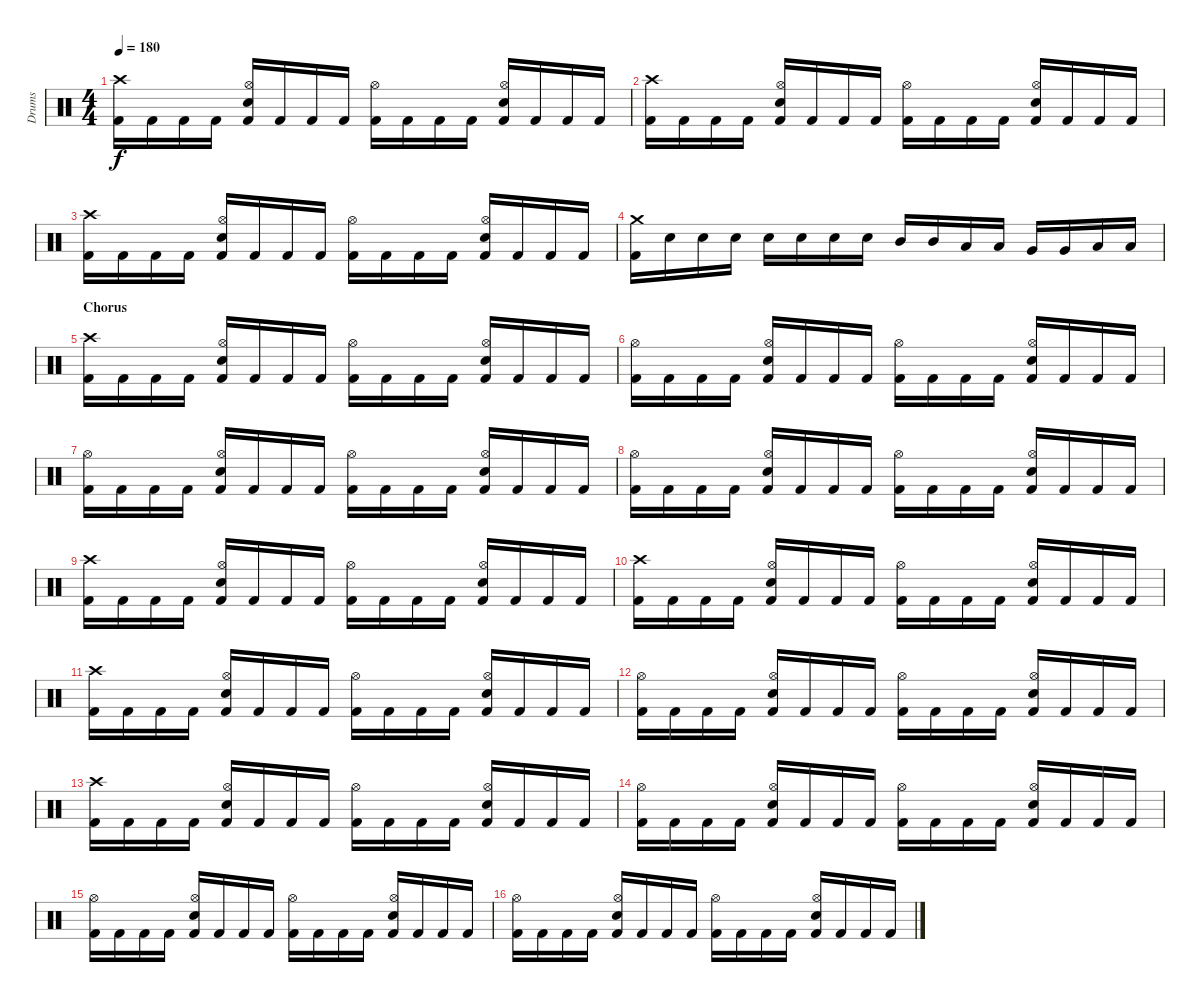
\track ("Drums" "Drums") {instrument percussion}
\staff {score}
\articulation defaults
\ts (4 4)
\tempo 180
\clef neutral
\ks c
("Crash high (hit)" "Kick (hit) 2").16{dy f} "Kick (hit) 2".16 "Kick (hit) 2".16 "Kick (hit) 2".16 ("Hi-Hat (open)" "Electric Snare (hit)" "Kick (hit) 2").16 "Kick (hit) 2".16 "Kick (hit) 2".16 "Kick (hit) 2".16 ("Hi-Hat (open)" "Kick (hit) 2").16 "Kick (hit) 2".16 "Kick (hit) 2".16 "Kick (hit) 2".16 ("Hi-Hat (open)" "Electric Snare (hit)" "Kick (hit) 2").16 "Kick (hit) 2".16 "Kick (hit) 2".16 "Kick (hit) 2".16 |
("Crash high (hit)" "Kick (hit) 2").16 "Kick (hit) 2".16 "Kick (hit) 2".16 "Kick (hit) 2".16 ("Hi-Hat (open)" "Electric Snare (hit)" "Kick (hit) 2").16 "Kick (hit) 2".16 "Kick (hit) 2".16 "Kick (hit) 2".16 ("Hi-Hat (open)" "Kick (hit) 2").16 "Kick (hit) 2".16 "Kick (hit) 2".16 "Kick (hit) 2".16 ("Hi-Hat (open)" "Electric Snare (hit)" "Kick (hit) 2").16 "Kick (hit) 2".16 "Kick (hit) 2".16 "Kick (hit) 2".16 |
("Crash high (hit)" "Kick (hit) 2").16 "Kick (hit) 2".16 "Kick (hit) 2".16 "Kick (hit) 2".16 ("Hi-Hat (open)" "Electric Snare (hit)" "Kick (hit) 2").16 "Kick (hit) 2".16 "Kick (hit) 2".16 "Kick (hit) 2".16 ("Hi-Hat (open)" "Kick (hit) 2").16 "Kick (hit) 2".16 "Kick (hit) 2".16 "Kick (hit) 2".16 ("Hi-Hat (open)" "Electric Snare (hit)" "Kick (hit) 2").16 "Kick (hit) 2".16 "Kick (hit) 2".16 "Kick (hit) 2".16 |
("Crash medium (hit)" "Kick (hit) 2").16 "Electric Snare (hit)".16 "Electric Snare (hit)".16 "Electric Snare (hit)".16 "Electric Snare (hit)".16 "Electric Snare (hit)".16 "Electric Snare (hit)".16 "Electric Snare (hit)".16 "Mid Tom (hit)".16 "Mid Tom (hit)".16 "Low Tom (hit)".16 "Low Tom (hit)".16 "Very Low Tom (hit)".16 "Very Low Tom (hit)".16 "Low Floor Tom (hit)".16 "Low Floor Tom (hit)".16 |
\section ("" "Chorus")
("Crash high (hit)" "Kick (hit) 2").16 "Kick (hit) 2".16 "Kick (hit) 2".16 "Kick (hit) 2".16 ("Hi-Hat (open)" "Electric Snare (hit)" "Kick (hit) 2").16 "Kick (hit) 2".16 "Kick (hit) 2".16 "Kick (hit) 2".16 ("Hi-Hat (open)" "Kick (hit) 2").16 "Kick (hit) 2".16 "Kick (hit) 2".16 "Kick (hit) 2".16 ("Hi-Hat (open)" "Electric Snare (hit)" "Kick (hit) 2").16 "Kick (hit) 2".16 "Kick (hit) 2".16 "Kick (hit) 2".16 |
("Hi-Hat (open)" "Kick (hit) 2").16 "Kick (hit) 2".16 "Kick (hit) 2".16 "Kick (hit) 2".16 ("Hi-Hat (open)" "Electric Snare (hit)" "Kick (hit) 2").16 "Kick (hit) 2".16 "Kick (hit) 2".16 "Kick (hit) 2".16 ("Hi-Hat (open)" "Kick (hit) 2").16 "Kick (hit) 2".16 "Kick (hit) 2".16 "Kick (hit) 2".16 ("Hi-Hat (open)" "Electric Snare (hit)" "Kick (hit) 2").16 "Kick (hit) 2".16 "Kick (hit) 2".16 "Kick (hit) 2".16 |
("Hi-Hat (open)" "Kick (hit) 2").16 "Kick (hit) 2".16 "Kick (hit) 2".16 "Kick (hit) 2".16 ("Hi-Hat (open)" "Electric Snare (hit)" "Kick (hit) 2").16 "Kick (hit) 2".16 "Kick (hit) 2".16 "Kick (hit) 2".16 ("Hi-Hat (open)" "Kick (hit) 2").16 "Kick (hit) 2".16 "Kick (hit) 2".16 "Kick (hit) 2".16 ("Hi-Hat (open)" "Electric Snare (hit)" "Kick (hit) 2").16 "Kick (hit) 2".16 "Kick (hit) 2".16 "Kick (hit) 2".16 |
("Hi-Hat (open)" "Kick (hit) 2").16 "Kick (hit) 2".16 "Kick (hit) 2".16 "Kick (hit) 2".16 ("Hi-Hat (open)" "Electric Snare (hit)" "Kick (hit) 2").16 "Kick (hit) 2".16 "Kick (hit) 2".16 "Kick (hit) 2".16 ("Hi-Hat (open)" "Kick (hit) 2").16 "Kick (hit) 2".16 "Kick (hit) 2".16 "Kick (hit) 2".16 ("Hi-Hat (open)" "Electric Snare (hit)" "Kick (hit) 2").16 "Kick (hit) 2".16 "Kick (hit) 2".16 "Kick (hit) 2".16 |
("Crash high (hit)" "Kick (hit) 2").16 "Kick (hit) 2".16 "Kick (hit) 2".16 "Kick (hit) 2".16 ("Hi-Hat (open)" "Electric Snare (hit)" "Kick (hit) 2").16 "Kick (hit) 2".16 "Kick (hit) 2".16 "Kick (hit) 2".16 ("Hi-Hat (open)" "Kick (hit) 2").16 "Kick (hit) 2".16 "Kick (hit) 2".16 "Kick (hit) 2".16 ("Hi-Hat (open)" "Electric Snare (hit)" "Kick (hit) 2").16 "Kick (hit) 2".16 "Kick (hit) 2".16 "Kick (hit) 2".16 |
("Crash high (hit)" "Kick (hit) 2").16 "Kick (hit) 2".16 "Kick (hit) 2".16 "Kick (hit) 2".16 ("Hi-Hat (open)" "Electric Snare (hit)" "Kick (hit) 2").16 "Kick (hit) 2".16 "Kick (hit) 2".16 "Kick (hit) 2".16 ("Hi-Hat (open)" "Kick (hit) 2").16 "Kick (hit) 2".16 "Kick (hit) 2".16 "Kick (hit) 2".16 ("Hi-Hat (open)" "Electric Snare (hit)" "Kick (hit) 2").16 "Kick (hit) 2".16 "Kick (hit) 2".16 "Kick (hit) 2".16 |
("Crash high (hit)" "Kick (hit) 2").16 "Kick (hit) 2".16 "Kick (hit) 2".16 "Kick (hit) 2".16 ("Hi-Hat (open)" "Electric Snare (hit)" "Kick (hit) 2").16 "Kick (hit) 2".16 "Kick (hit) 2".16 "Kick (hit) 2".16 ("Hi-Hat (open)" "Kick (hit) 2").16 "Kick (hit) 2".16 "Kick (hit) 2".16 "Kick (hit) 2".16 ("Hi-Hat (open)" "Electric Snare (hit)" "Kick (hit) 2").16 "Kick (hit) 2".16 "Kick (hit) 2".16 "Kick (hit) 2".16 |
("Hi-Hat (open)" "Kick (hit) 2").16 "Kick (hit) 2".16 "Kick (hit) 2".16 "Kick (hit) 2".16 ("Hi-Hat (open)" "Electric Snare (hit)" "Kick (hit) 2").16 "Kick (hit) 2".16 "Kick (hit) 2".16 "Kick (hit) 2".16 ("Hi-Hat (open)" "Kick (hit) 2").16 "Kick (hit) 2".16 "Kick (hit) 2".16 "Kick (hit) 2".16 ("Hi-Hat (open)" "Electric Snare (hit)" "Kick (hit) 2").16 "Kick (hit) 2".16 "Kick (hit) 2".16 "Kick (hit) 2".16 |
("Crash high (hit)" "Kick (hit) 2").16 "Kick (hit) 2".16 "Kick (hit) 2".16 "Kick (hit) 2".16 ("Hi-Hat (open)" "Electric Snare (hit)" "Kick (hit) 2").16 "Kick (hit) 2".16 "Kick (hit) 2".16 "Kick (hit) 2".16 ("Hi-Hat (open)" "Kick (hit) 2").16 "Kick (hit) 2".16 "Kick (hit) 2".16 "Kick (hit) 2".16 ("Hi-Hat (open)" "Electric Snare (hit)" "Kick (hit) 2").16 "Kick (hit) 2".16 "Kick (hit) 2".16 "Kick (hit) 2".16 |
("Hi-Hat (open)" "Kick (hit) 2").16 "Kick (hit) 2".16 "Kick (hit) 2".16 "Kick (hit) 2".16 ("Hi-Hat (open)" "Electric Snare (hit)" "Kick (hit) 2").16 "Kick (hit) 2".16 "Kick (hit) 2".16 "Kick (hit) 2".16 ("Hi-Hat (open)" "Kick (hit) 2").16 "Kick (hit) 2".16 "Kick (hit) 2".16 "Kick (hit) 2".16 ("Hi-Hat (open)" "Electric Snare (hit)" "Kick (hit) 2").16 "Kick (hit) 2".16 "Kick (hit) 2".16 "Kick (hit) 2".16 |
("Hi-Hat (open)" "Kick (hit) 2").16 "Kick (hit) 2".16 "Kick (hit) 2".16 "Kick (hit) 2".16 ("Hi-Hat (open)" "Electric Snare (hit)" "Kick (hit) 2").16 "Kick (hit) 2".16 "Kick (hit) 2".16 "Kick (hit) 2".16 ("Hi-Hat (open)" "Kick (hit) 2").16 "Kick (hit) 2".16 "Kick (hit) 2".16 "Kick (hit) 2".16 ("Hi-Hat (open)" "Electric Snare (hit)" "Kick (hit) 2").16 "Kick (hit) 2".16 "Kick (hit) 2".16 "Kick (hit) 2".16 |
("Hi-Hat (open)" "Kick (hit) 2").16 "Kick (hit) 2".16 "Kick (hit) 2".16 "Kick (hit) 2".16 ("Hi-Hat (open)" "Electric Snare (hit)" "Kick (hit) 2").16 "Kick (hit) 2".16 "Kick (hit) 2".16 "Kick (hit) 2".16 ("Hi-Hat (open)" "Kick (hit) 2").16 "Kick (hit) 2".16 "Kick (hit) 2".16 "Kick (hit) 2".16 ("Hi-Hat (open)" "Electric Snare (hit)" "Kick (hit) 2").16 "Kick (hit) 2".16 "Kick (hit) 2".16 "Kick (hit) 2".16
